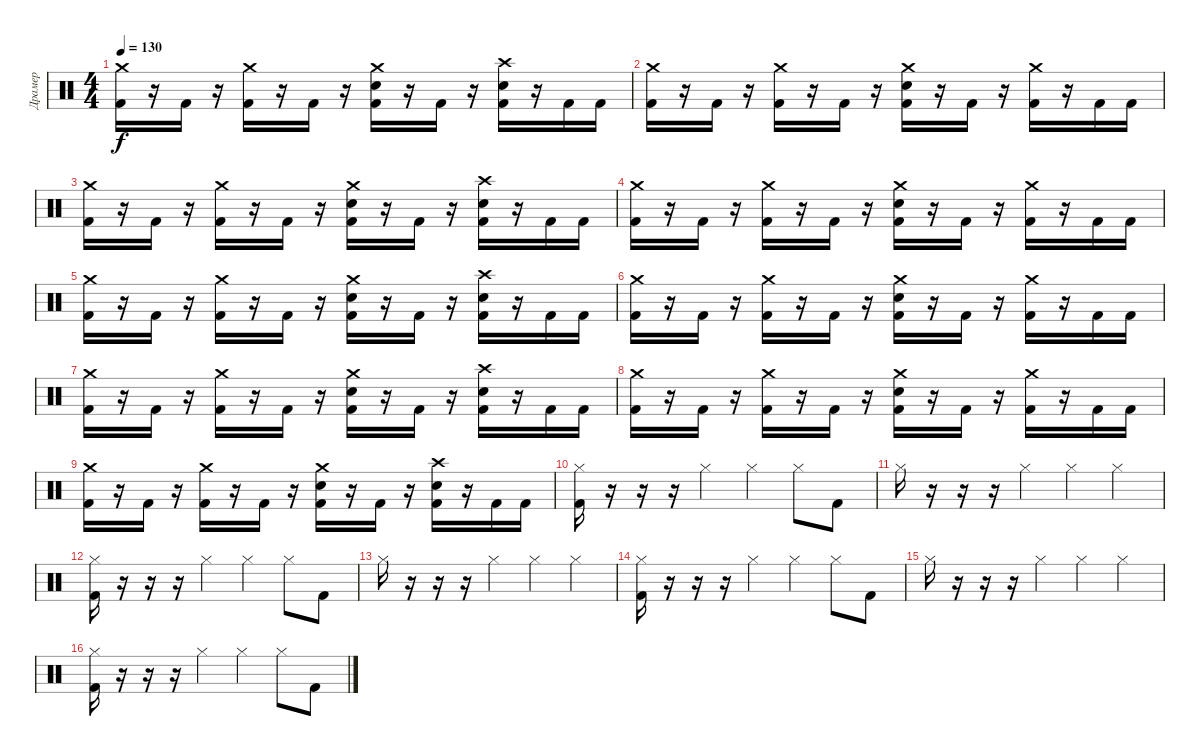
\track ("Драмер" "Драмер") {instrument percussion}
\staff {score}
\articulation defaults
\ts (4 4)
\tempo 130
\clef neutral
\ks c
("Crash medium (hit)" "Kick (hit) 2").16{dy f} r.16 "Kick (hit) 2".16 r.16 ("Crash medium (hit)" "Kick (hit) 2").16 r.16 "Kick (hit) 2".16 r.16 ("Crash medium (hit)" "Electric Snare (hit)" "Kick (hit) 2").16 r.16 "Kick (hit) 2".16 r.16 ("Crash high (hit)" "Electric Snare (hit)" "Kick (hit) 2").16 r.16 "Kick (hit) 2".16 "Kick (hit) 2".16 |
("Crash medium (hit)" "Kick (hit) 2").16 r.16 "Kick (hit) 2".16 r.16 ("Crash medium (hit)" "Kick (hit) 2").16 r.16 "Kick (hit) 2".16 r.16 ("Crash medium (hit)" "Electric Snare (hit)" "Kick (hit) 2").16 r.16 "Kick (hit) 2".16 r.16 ("Crash medium (hit)" "Kick (hit) 2").16 r.16 "Kick (hit) 2".16 "Kick (hit) 2".16 |
("Crash medium (hit)" "Kick (hit) 2").16 r.16 "Kick (hit) 2".16 r.16 ("Crash medium (hit)" "Kick (hit) 2").16 r.16 "Kick (hit) 2".16 r.16 ("Crash medium (hit)" "Electric Snare (hit)" "Kick (hit) 2").16 r.16 "Kick (hit) 2".16 r.16 ("Crash high (hit)" "Electric Snare (hit)" "Kick (hit) 2").16 r.16 "Kick (hit) 2".16 "Kick (hit) 2".16 |
("Crash medium (hit)" "Kick (hit) 2").16 r.16 "Kick (hit) 2".16 r.16 ("Crash medium (hit)" "Kick (hit) 2").16 r.16 "Kick (hit) 2".16 r.16 ("Crash medium (hit)" "Electric Snare (hit)" "Kick (hit) 2").16 r.16 "Kick (hit) 2".16 r.16 ("Crash medium (hit)" "Kick (hit) 2").16 r.16 "Kick (hit) 2".16 "Kick (hit) 2".16 |
("Crash medium (hit)" "Kick (hit) 2").16 r.16 "Kick (hit) 2".16 r.16 ("Crash medium (hit)" "Kick (hit) 2").16 r.16 "Kick (hit) 2".16 r.16 ("Crash medium (hit)" "Electric Snare (hit)" "Kick (hit) 2").16 r.16 "Kick (hit) 2".16 r.16 ("Crash high (hit)" "Electric Snare (hit)" "Kick (hit) 2").16 r.16 "Kick (hit) 2".16 "Kick (hit) 2".16 |
("Crash medium (hit)" "Kick (hit) 2").16 r.16 "Kick (hit) 2".16 r.16 ("Crash medium (hit)" "Kick (hit) 2").16 r.16 "Kick (hit) 2".16 r.16 ("Crash medium (hit)" "Electric Snare (hit)" "Kick (hit) 2").16 r.16 "Kick (hit) 2".16 r.16 ("Crash medium (hit)" "Kick (hit) 2").16 r.16 "Kick (hit) 2".16 "Kick (hit) 2".16 |
("Crash medium (hit)" "Kick (hit) 2").16 r.16 "Kick (hit) 2".16 r.16 ("Crash medium (hit)" "Kick (hit) 2").16 r.16 "Kick (hit) 2".16 r.16 ("Crash medium (hit)" "Electric Snare (hit)" "Kick (hit) 2").16 r.16 "Kick (hit) 2".16 r.16 ("Crash high (hit)" "Electric Snare (hit)" "Kick (hit) 2").16 r.16 "Kick (hit) 2".16 "Kick (hit) 2".16 |
("Crash medium (hit)" "Kick (hit) 2").16 r.16 "Kick (hit) 2".16 r.16 ("Crash medium (hit)" "Kick (hit) 2").16 r.16 "Kick (hit) 2".16 r.16 ("Crash medium (hit)" "Electric Snare (hit)" "Kick (hit) 2").16 r.16 "Kick (hit) 2".16 r.16 ("Crash medium (hit)" "Kick (hit) 2").16 r.16 "Kick (hit) 2".16 "Kick (hit) 2".16 |
("Crash medium (hit)" "Kick (hit) 2").16 r.16 "Kick (hit) 2".16 r.16 ("Crash medium (hit)" "Kick (hit) 2").16 r.16 "Kick (hit) 2".16 r.16 ("Crash medium (hit)" "Electric Snare (hit)" "Kick (hit) 2").16 r.16 "Kick (hit) 2".16 r.16 ("Crash high (hit)" "Electric Snare (hit)" "Kick (hit) 2").16 r.16 "Kick (hit) 2".16 "Kick (hit) 2".16 |
("Hi-Hat (closed)" "Kick (hit) 2").16 r.16 r.16 r.16 "Hi-Hat (closed)".4 "Hi-Hat (closed)".4 "Hi-Hat (closed)".8 "Kick (hit) 2".8 |
"Hi-Hat (closed)".16 r.16 r.16 r.16 "Hi-Hat (closed)".4 "Hi-Hat (closed)".4 "Hi-Hat (closed)".4 |
("Hi-Hat (closed)" "Kick (hit) 2").16 r.16 r.16 r.16 "Hi-Hat (closed)".4 "Hi-Hat (closed)".4 "Hi-Hat (closed)".8 "Kick (hit) 2".8 |
"Hi-Hat (closed)".16 r.16 r.16 r.16 "Hi-Hat (closed)".4 "Hi-Hat (closed)".4 "Hi-Hat (closed)".4 |
("Hi-Hat (closed)" "Kick (hit) 2").16 r.16 r.16 r.16 "Hi-Hat (closed)".4 "Hi-Hat (closed)".4 "Hi-Hat (closed)".8 "Kick (hit) 2".8 |
"Hi-Hat (closed)".16 r.16 r.16 r.16 "Hi-Hat (closed)".4 "Hi-Hat (closed)".4 "Hi-Hat (closed)".4 |
("Hi-Hat (closed)" "Kick (hit) 2").16 r.16 r.16 r.16 "Hi-Hat (closed)".4 "Hi-Hat (closed)".4 "Hi-Hat (closed)".8 "Kick (hit) 2".8
